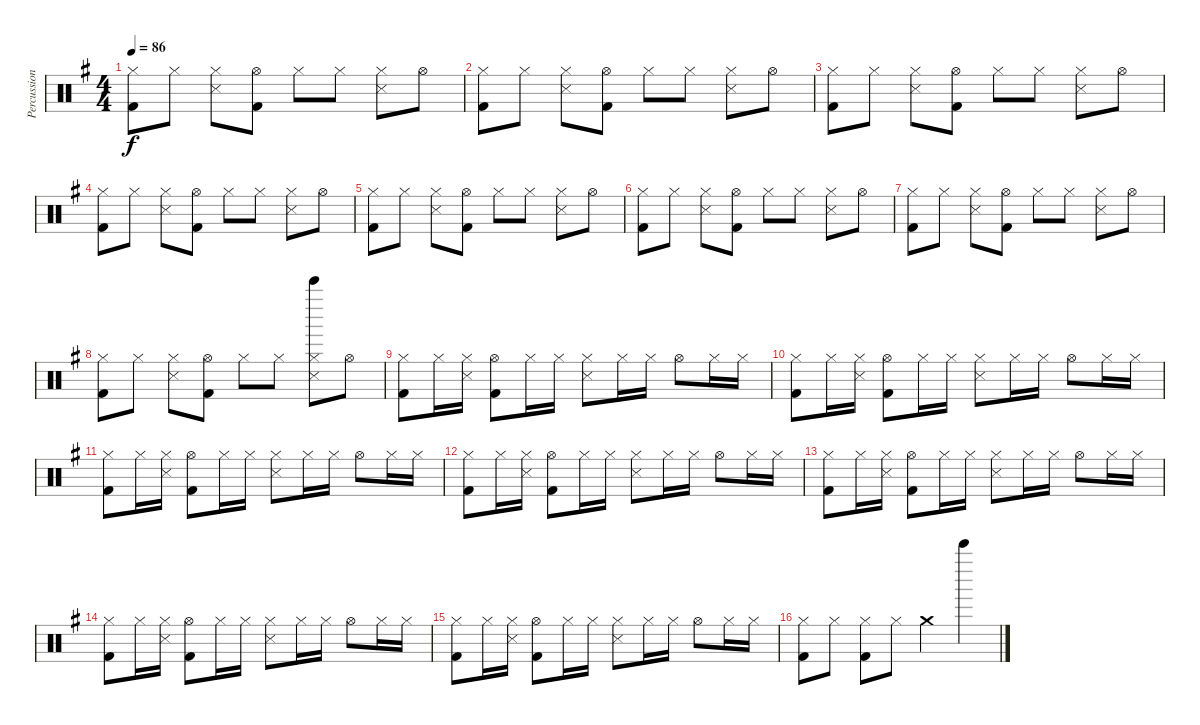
\track ("Percussion" "Percussion") {instrument percussion}
\staff {score}
\articulation defaults
\ts (4 4)
\tempo 86
\clef neutral
\ks g
("Hi-Hat (closed)" "Kick (hit) 2").8{dy f} "Hi-Hat (closed)".8 ("Hi-Hat (closed)" "Snare (side stick) 3").8 ("Hi-Hat (open)" "Kick (hit) 2").8 "Hi-Hat (closed)".8 "Hi-Hat (closed)".8 ("Hi-Hat (closed)" "Snare (side stick) 3").8 "Hi-Hat (open)".8 |
("Hi-Hat (closed)" "Kick (hit) 2").8 "Hi-Hat (closed)".8 ("Hi-Hat (closed)" "Snare (side stick) 3").8 ("Hi-Hat (open)" "Kick (hit) 2").8 "Hi-Hat (closed)".8 "Hi-Hat (closed)".8 ("Hi-Hat (closed)" "Snare (side stick) 3").8 "Hi-Hat (open)".8 |
("Hi-Hat (closed)" "Kick (hit) 2").8 "Hi-Hat (closed)".8 ("Hi-Hat (closed)" "Snare (side stick) 3").8 ("Hi-Hat (open)" "Kick (hit) 2").8 "Hi-Hat (closed)".8 "Hi-Hat (closed)".8 ("Hi-Hat (closed)" "Snare (side stick) 3").8 "Hi-Hat (open)".8 |
("Hi-Hat (closed)" "Kick (hit) 2").8 "Hi-Hat (closed)".8 ("Hi-Hat (closed)" "Snare (side stick) 3").8 ("Hi-Hat (open)" "Kick (hit) 2").8 "Hi-Hat (closed)".8 "Hi-Hat (closed)".8 ("Hi-Hat (closed)" "Snare (side stick) 3").8 "Hi-Hat (open)".8 |
("Hi-Hat (closed)" "Kick (hit) 2").8 "Hi-Hat (closed)".8 ("Hi-Hat (closed)" "Snare (side stick) 3").8 ("Hi-Hat (open)" "Kick (hit) 2").8 "Hi-Hat (closed)".8 "Hi-Hat (closed)".8 ("Hi-Hat (closed)" "Snare (side stick) 3").8 "Hi-Hat (open)".8 |
("Hi-Hat (closed)" "Kick (hit) 2").8 "Hi-Hat (closed)".8 ("Hi-Hat (closed)" "Snare (side stick) 3").8 ("Hi-Hat (open)" "Kick (hit) 2").8 "Hi-Hat (closed)".8 "Hi-Hat (closed)".8 ("Hi-Hat (closed)" "Snare (side stick) 3").8 "Hi-Hat (open)".8 |
("Hi-Hat (closed)" "Kick (hit) 2").8 "Hi-Hat (closed)".8 ("Hi-Hat (closed)" "Snare (side stick) 3").8 ("Hi-Hat (open)" "Kick (hit) 2").8 "Hi-Hat (closed)".8 "Hi-Hat (closed)".8 ("Hi-Hat (closed)" "Snare (side stick) 3").8 "Hi-Hat (open)".8 |
("Hi-Hat (closed)" "Kick (hit) 2").8 "Hi-Hat (closed)".8 ("Hi-Hat (closed)" "Snare (side stick) 3").8 ("Hi-Hat (open)" "Kick (hit) 2").8 "Hi-Hat (closed)".8 "Hi-Hat (closed)".8 ("Hi-Hat (closed)" "Bell Tree (hit)" "Snare (side stick) 3").8 "Hi-Hat (open)".8 |
("Hi-Hat (closed)" "Kick (hit) 2").8 "Hi-Hat (closed)".16 ("Hi-Hat (closed)" "Snare (side stick) 3").16 ("Hi-Hat (open)" "Kick (hit) 2").8 "Hi-Hat (closed)".16 "Hi-Hat (closed)".16 ("Hi-Hat (closed)" "Snare (side stick) 3").8 "Hi-Hat (closed)".16 "Hi-Hat (closed)".16 "Hi-Hat (open)".8 "Hi-Hat (closed)".16 "Hi-Hat (closed)".16 |
("Hi-Hat (closed)" "Kick (hit) 2").8 "Hi-Hat (closed)".16 ("Hi-Hat (closed)" "Snare (side stick) 3").16 ("Hi-Hat (open)" "Kick (hit) 2").8 "Hi-Hat (closed)".16 "Hi-Hat (closed)".16 ("Hi-Hat (closed)" "Snare (side stick) 3").8 "Hi-Hat (closed)".16 "Hi-Hat (closed)".16 "Hi-Hat (open)".8 "Hi-Hat (closed)".16 "Hi-Hat (closed)".16 |
("Hi-Hat (closed)" "Kick (hit) 2").8 "Hi-Hat (closed)".16 ("Hi-Hat (closed)" "Snare (side stick) 3").16 ("Hi-Hat (open)" "Kick (hit) 2").8 "Hi-Hat (closed)".16 "Hi-Hat (closed)".16 ("Hi-Hat (closed)" "Snare (side stick) 3").8 "Hi-Hat (closed)".16 "Hi-Hat (closed)".16 "Hi-Hat (open)".8 "Hi-Hat (closed)".16 "Hi-Hat (closed)".16 |
("Hi-Hat (closed)" "Kick (hit) 2").8 "Hi-Hat (closed)".16 ("Hi-Hat (closed)" "Snare (side stick) 3").16 ("Hi-Hat (open)" "Kick (hit) 2").8 "Hi-Hat (closed)".16 "Hi-Hat (closed)".16 ("Hi-Hat (closed)" "Snare (side stick) 3").8 "Hi-Hat (closed)".16 "Hi-Hat (closed)".16 "Hi-Hat (open)".8 "Hi-Hat (closed)".16 "Hi-Hat (closed)".16 |
("Hi-Hat (closed)" "Kick (hit) 2").8 "Hi-Hat (closed)".16 ("Hi-Hat (closed)" "Snare (side stick) 3").16 ("Hi-Hat (open)" "Kick (hit) 2").8 "Hi-Hat (closed)".16 "Hi-Hat (closed)".16 ("Hi-Hat (closed)" "Snare (side stick) 3").8 "Hi-Hat (closed)".16 "Hi-Hat (closed)".16 "Hi-Hat (open)".8 "Hi-Hat (closed)".16 "Hi-Hat (closed)".16 |
("Hi-Hat (closed)" "Kick (hit) 2").8 "Hi-Hat (closed)".16 ("Hi-Hat (closed)" "Snare (side stick) 3").16 ("Hi-Hat (open)" "Kick (hit) 2").8 "Hi-Hat (closed)".16 "Hi-Hat (closed)".16 ("Hi-Hat (closed)" "Snare (side stick) 3").8 "Hi-Hat (closed)".16 "Hi-Hat (closed)".16 "Hi-Hat (open)".8 "Hi-Hat (closed)".16 "Hi-Hat (closed)".16 |
("Hi-Hat (closed)" "Kick (hit) 2").8 "Hi-Hat (closed)".16 ("Hi-Hat (closed)" "Snare (side stick) 3").16 ("Hi-Hat (open)" "Kick (hit) 2").8 "Hi-Hat (closed)".16 "Hi-Hat (closed)".16 ("Hi-Hat (closed)" "Snare (side stick) 3").8 "Hi-Hat (closed)".16 "Hi-Hat (closed)".16 "Hi-Hat (open)".8 "Hi-Hat (closed)".16 "Hi-Hat (closed)".16 |
("Hi-Hat (closed)" "Kick (hit) 2").8 "Hi-Hat (closed)".8 ("Hi-Hat (closed)" "Kick (hit) 2").8 "Hi-Hat (closed)".8 "Crash medium (hit)".4 "Bell Tree (hit)".4
